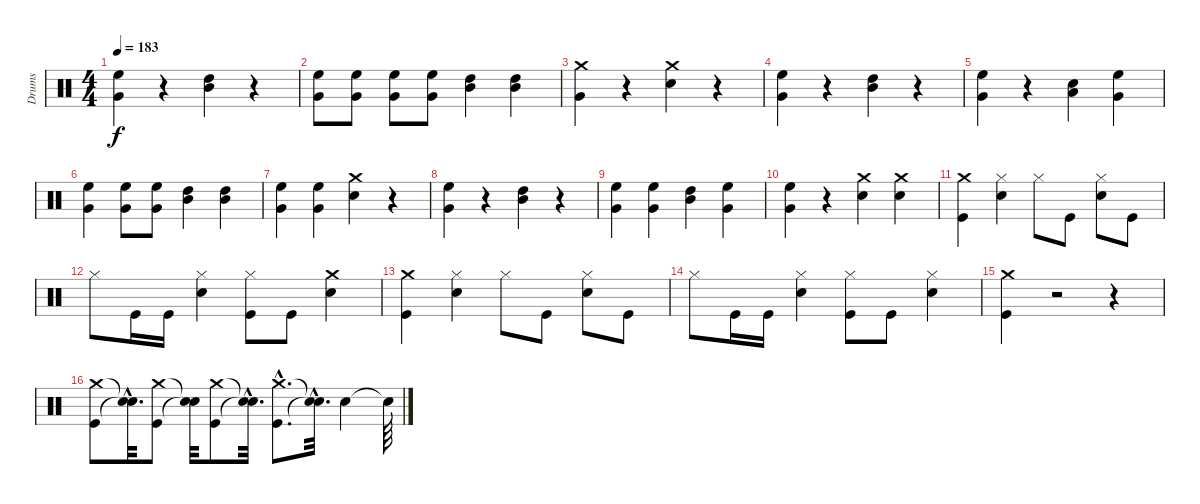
\track ("Drums" "Drums") {instrument percussion}
\staff {score}
\articulation defaults
\ts (4 4)
\tempo 183
\clef neutral
\ks c
("High Floor Tom (hit)" "Very Low Tom (hit)").4{dy f} r.4 ("Mid Tom (hit)" "High Tom (hit)").4 r.4 |
("High Floor Tom (hit)" "Very Low Tom (hit)").8 ("High Floor Tom (hit)" "Very Low Tom (hit)").8 ("High Floor Tom (hit)" "Very Low Tom (hit)").8 ("High Floor Tom (hit)" "Very Low Tom (hit)").8 ("Mid Tom (hit)" "High Tom (hit)").4 ("Mid Tom (hit)" "High Tom (hit)").4 |
("Very Low Tom (hit)" "Crash medium (hit)").4 r.4 ("Crash medium (hit)" "Snare (hit) 2").4 r.4 |
("High Floor Tom (hit)" "Very Low Tom (hit)").4 r.4 ("Mid Tom (hit)" "High Tom (hit)").4 r.4 |
("Very Low Tom (hit)" "High Floor Tom (hit)").4 r.4 ("Snare (hit) 2" "Low Tom (hit)").4 ("High Floor Tom (hit)" "Very Low Tom (hit)").4 |
("Very Low Tom (hit)" "High Floor Tom (hit)").4 ("High Floor Tom (hit)" "Very Low Tom (hit)").8 ("High Floor Tom (hit)" "Very Low Tom (hit)").8 ("Mid Tom (hit)" "High Tom (hit)").4 ("Mid Tom (hit)" "High Tom (hit)").4 |
("Very Low Tom (hit)" "High Floor Tom (hit)").4 ("Very Low Tom (hit)" "High Floor Tom (hit)").4 ("Crash medium (hit)" "Snare (hit) 2").4 r.4 |
("High Floor Tom (hit)" "Very Low Tom (hit)").4 r.4 ("Mid Tom (hit)" "High Tom (hit)").4 r.4 |
("High Floor Tom (hit)" "Very Low Tom (hit)").4 ("Very Low Tom (hit)" "High Floor Tom (hit)").4 ("Mid Tom (hit)" "High Tom (hit)").4 ("High Floor Tom (hit)" "Very Low Tom (hit)").4 |
("Very Low Tom (hit)" "High Floor Tom (hit)").4 r.4 ("Crash medium (hit)" "Snare (hit) 2").4 ("Crash medium (hit)" "Snare (hit) 2").4 |
("Kick (hit)" "Crash medium (hit)").4 ("Hi-Hat (closed)" "Snare (hit) 2").4 "Hi-Hat (closed)".8 "Kick (hit)".8 ("Snare (hit) 2" "Hi-Hat (closed)").8 "Kick (hit)".8 |
"Hi-Hat (closed)".8 "Kick (hit)".16 "Kick (hit)".16 ("Snare (hit) 2" "Hi-Hat (closed)").4 ("Hi-Hat (closed)" "Kick (hit)").8 "Kick (hit)".8 ("Crash medium (hit)" "Snare (hit) 2").4 |
("Kick (hit)" "Crash medium (hit)").4 ("Hi-Hat (closed)" "Snare (hit) 2").4 "Hi-Hat (closed)".8 "Kick (hit)".8 ("Snare (hit) 2" "Hi-Hat (closed)").8 "Kick (hit)".8 |
"Hi-Hat (closed)".8 "Kick (hit)".16 "Kick (hit)".16 ("Snare (hit) 2" "Hi-Hat (closed)").4 ("Hi-Hat (closed)" "Kick (hit)").8 "Kick (hit)".8 ("Snare (hit) 2" "Hi-Hat (closed)").4 |
("Crash medium (hit)" "Kick (hit)").4 r.2 r.4 |
("Kick (hit)" "Crash medium (hit)").8 ("Snare (hit)"{hac t} "Snare (hit)"{hac t}).32{d} ("Kick (hit)" "Crash medium (hit)").8 ("Snare (hit)"{t} "Snare (hit)"{t}).32 ("Kick (hit)" "Crash medium (hit)").8 ("Snare (hit)"{hac t} "Snare (hit)"{hac t}).32{d} ("Kick (hit)"{hac} "Crash medium (hit)"{hac}).8{d} ("Snare (hit)"{hac t} "Snare (hit)"{hac t}).32{d} "Snare (hit) 2".4 "Snare (hit)"{t}.64
